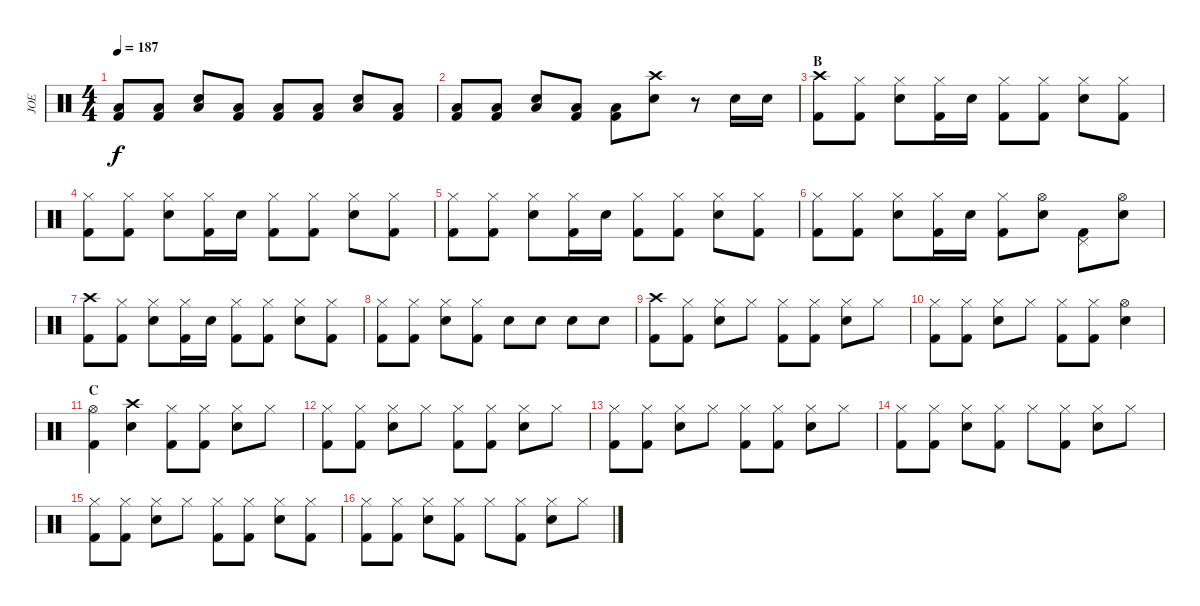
\track ("JOE" "JOE") {instrument percussion}
\staff {score}
\articulation defaults
\ts (4 4)
\tempo 187
\clef neutral
\ks c
("Low Floor Tom (hit)" "Kick (hit) 2").8{dy f} ("Low Floor Tom (hit)" "Kick (hit) 2").8 ("Low Floor Tom (hit)" "Snare (hit) 2").8 ("Low Floor Tom (hit)" "Kick (hit) 2").8 ("Low Floor Tom (hit)" "Kick (hit) 2").8 ("Low Floor Tom (hit)" "Kick (hit) 2").8 ("Low Floor Tom (hit)" "Snare (hit) 2").8 ("Low Floor Tom (hit)" "Kick (hit) 2").8 |
("Low Floor Tom (hit)" "Kick (hit) 2").8 ("Low Floor Tom (hit)" "Kick (hit) 2").8 ("Low Floor Tom (hit)" "Snare (hit) 2").8 ("Low Floor Tom (hit)" "Kick (hit) 2").8 ("Low Floor Tom (hit)" "Kick (hit) 2").8 ("Crash high (hit)" "Snare (hit) 2").8 r.8 "Snare (hit) 2".16 "Snare (hit) 2".16 |
\section ("" "B")
("Crash high (hit)" "Kick (hit) 2").8 ("Hi-Hat (closed)" "Kick (hit) 2").8 ("Hi-Hat (closed)" "Snare (hit) 2").8 ("Hi-Hat (closed)" "Kick (hit) 2").16 "Snare (hit) 2".16 ("Hi-Hat (closed)" "Kick (hit) 2").8 ("Hi-Hat (closed)" "Kick (hit) 2").8 ("Hi-Hat (closed)" "Snare (hit) 2").8 ("Hi-Hat (closed)" "Kick (hit) 2").8 |
("Hi-Hat (closed)" "Kick (hit) 2").8 ("Hi-Hat (closed)" "Kick (hit) 2").8 ("Hi-Hat (closed)" "Snare (hit) 2").8 ("Hi-Hat (closed)" "Kick (hit) 2").16 "Snare (hit) 2".16 ("Hi-Hat (closed)" "Kick (hit) 2").8 ("Hi-Hat (closed)" "Kick (hit) 2").8 ("Hi-Hat (closed)" "Snare (hit) 2").8 ("Hi-Hat (closed)" "Kick (hit) 2").8 |
("Hi-Hat (closed)" "Kick (hit) 2").8 ("Hi-Hat (closed)" "Kick (hit) 2").8 ("Hi-Hat (closed)" "Snare (hit) 2").8 ("Hi-Hat (closed)" "Kick (hit) 2").16 "Snare (hit) 2".16 ("Hi-Hat (closed)" "Kick (hit) 2").8 ("Hi-Hat (closed)" "Kick (hit) 2").8 ("Hi-Hat (closed)" "Snare (hit) 2").8 ("Hi-Hat (closed)" "Kick (hit) 2").8 |
("Hi-Hat (closed)" "Kick (hit) 2").8 ("Hi-Hat (closed)" "Kick (hit) 2").8 ("Hi-Hat (closed)" "Snare (hit) 2").8 ("Hi-Hat (closed)" "Kick (hit) 2").16 "Snare (hit) 2".16 ("Hi-Hat (closed)" "Kick (hit) 2").8 ("Hi-Hat (open)" "Snare (hit) 2").8 ("Pedal Hi-Hat (hit)" "Kick (hit) 2").8 ("Hi-Hat (open)" "Snare (hit) 2").8 |
("Crash high (hit)" "Kick (hit) 2").8 ("Hi-Hat (closed)" "Kick (hit) 2").8 ("Hi-Hat (closed)" "Snare (hit) 2").8 ("Hi-Hat (closed)" "Kick (hit) 2").16 "Snare (hit) 2".16 ("Hi-Hat (closed)" "Kick (hit) 2").8 ("Hi-Hat (closed)" "Kick (hit) 2").8 ("Hi-Hat (closed)" "Snare (hit) 2").8 ("Hi-Hat (closed)" "Kick (hit) 2").8 |
("Hi-Hat (closed)" "Kick (hit) 2").8 ("Hi-Hat (closed)" "Kick (hit) 2").8 ("Hi-Hat (closed)" "Snare (hit) 2").8 ("Hi-Hat (closed)" "Kick (hit) 2").8 "Snare (hit) 2".8 "Snare (hit) 2".8 "Snare (hit) 2".8 "Snare (hit) 2".8 |
("Crash high (hit)" "Kick (hit) 2").8 ("Hi-Hat (closed)" "Kick (hit) 2").8 ("Hi-Hat (closed)" "Snare (hit) 2").8 "Hi-Hat (closed)".8 ("Hi-Hat (closed)" "Kick (hit) 2").8 ("Hi-Hat (closed)" "Kick (hit) 2").8 ("Hi-Hat (closed)" "Snare (hit) 2").8 "Hi-Hat (closed)".8 |
("Hi-Hat (closed)" "Kick (hit) 2").8 ("Hi-Hat (closed)" "Kick (hit) 2").8 ("Hi-Hat (closed)" "Snare (hit) 2").8 "Hi-Hat (closed)".8 ("Hi-Hat (closed)" "Kick (hit) 2").8 ("Hi-Hat (closed)" "Kick (hit) 2").8 ("Hi-Hat (open)" "Snare (hit) 2").4 |
\section ("" "C")
("Hi-Hat (open)" "Kick (hit) 2").4 ("Crash high (hit)" "Snare (hit) 2").4 ("Hi-Hat (closed)" "Kick (hit) 2").8 ("Hi-Hat (closed)" "Kick (hit) 2").8 ("Hi-Hat (closed)" "Snare (hit) 2").8 "Hi-Hat (closed)".8 |
("Hi-Hat (closed)" "Kick (hit) 2").8 ("Hi-Hat (closed)" "Kick (hit) 2").8 ("Hi-Hat (closed)" "Snare (hit) 2").8 "Hi-Hat (closed)".8 ("Hi-Hat (closed)" "Kick (hit) 2").8 ("Hi-Hat (closed)" "Kick (hit) 2").8 ("Hi-Hat (closed)" "Snare (hit) 2").8 "Hi-Hat (closed)".8 |
("Hi-Hat (closed)" "Kick (hit) 2").8 ("Hi-Hat (closed)" "Kick (hit) 2").8 ("Hi-Hat (closed)" "Snare (hit) 2").8 "Hi-Hat (closed)".8 ("Hi-Hat (closed)" "Kick (hit) 2").8 ("Hi-Hat (closed)" "Kick (hit) 2").8 ("Hi-Hat (closed)" "Snare (hit) 2").8 "Hi-Hat (closed)".8 |
("Hi-Hat (closed)" "Kick (hit) 2").8 ("Hi-Hat (closed)" "Kick (hit) 2").8 ("Hi-Hat (closed)" "Snare (hit) 2").8 ("Hi-Hat (closed)" "Kick (hit) 2").8 "Hi-Hat (closed)".8 ("Hi-Hat (closed)" "Kick (hit) 2").8 ("Hi-Hat (closed)" "Snare (hit) 2").8 "Hi-Hat (closed)".8 |
("Hi-Hat (closed)" "Kick (hit) 2").8 ("Hi-Hat (closed)" "Kick (hit) 2").8 ("Hi-Hat (closed)" "Snare (hit) 2").8 "Hi-Hat (closed)".8 ("Hi-Hat (closed)" "Kick (hit) 2").8 ("Hi-Hat (closed)" "Kick (hit) 2").8 ("Hi-Hat (closed)" "Snare (hit) 2").8 ("Hi-Hat (closed)" "Kick (hit) 2").8 |
("Hi-Hat (closed)" "Kick (hit) 2").8 ("Hi-Hat (closed)" "Kick (hit) 2").8 ("Hi-Hat (closed)" "Snare (hit) 2").8 ("Hi-Hat (closed)" "Kick (hit) 2").8 "Hi-Hat (closed)".8 ("Hi-Hat (closed)" "Kick (hit) 2").8 ("Hi-Hat (closed)" "Snare (hit) 2").8 "Hi-Hat (closed)".8
